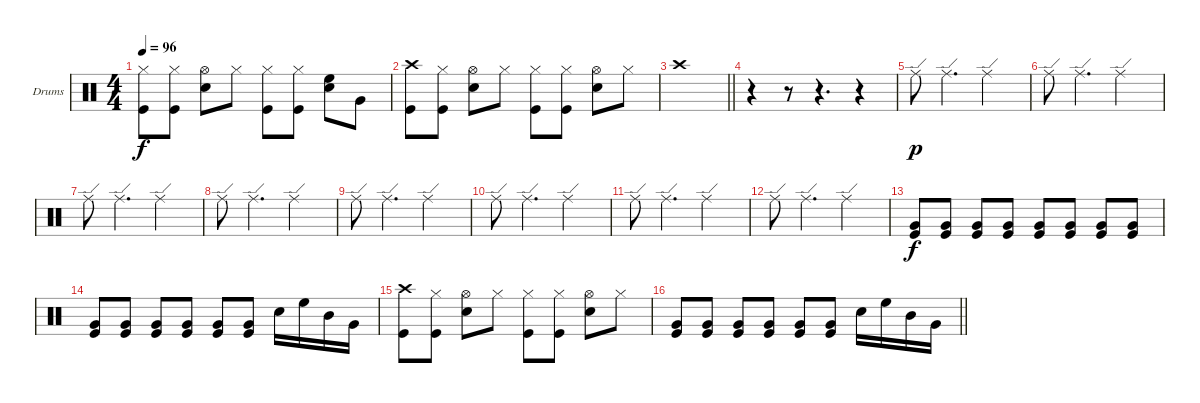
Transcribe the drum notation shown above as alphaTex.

\bracketExtendMode groupsimilarinstruments
\firstSystemTrackNameOrientation horizontal
\otherSystemsTrackNameOrientation horizontal
\track ("Drumkit" "Drums") {instrument percussion}
\staff {score}
\articulation defaults
\ts (4 4)
\tempo 96
\clef neutral
\ks c
("Hi-Hat (closed)" "Kick (hit)").8{dy f} ("Hi-Hat (closed)" "Kick (hit)").8 ("Hi-Hat (open)" "Snare (hit) 2").8 "Hi-Hat (closed)".8 ("Hi-Hat (closed)" "Kick (hit)").8 ("Hi-Hat (closed)" "Kick (hit)").8 ("Snare (hit) 2" "High Floor Tom (hit)").8 "Very Low Tom (hit)".8 |
("Crash high (hit)" "Kick (hit)").8 ("Hi-Hat (closed)" "Kick (hit)").8 ("Hi-Hat (open)" "Snare (hit) 2").8 "Hi-Hat (closed)".8 ("Hi-Hat (closed)" "Kick (hit)").8 ("Hi-Hat (closed)" "Kick (hit)").8 ("Hi-Hat (open)" "Snare (hit) 2").8 "Hi-Hat (closed)".8 |
\barLineRight lightlight "Crash high (hit)".1
|
r.4 r.8 r.4{d} r.4 |
"Ride (edge)".8{dy p} "Ride (edge)".4{d} "Ride (edge)".2 |
"Ride (edge)".8 "Ride (edge)".4{d} "Ride (edge)".2 |
"Ride (edge)".8 "Ride (edge)".4{d} "Ride (edge)".2 |
"Ride (edge)".8 "Ride (edge)".4{d} "Ride (edge)".2 |
"Ride (edge)".8 "Ride (edge)".4{d} "Ride (edge)".2 |
"Ride (edge)".8 "Ride (edge)".4{d} "Ride (edge)".2 |
"Ride (edge)".8 "Ride (edge)".4{d} "Ride (edge)".2 |
"Ride (edge)".8 "Ride (edge)".4{d} "Ride (edge)".2 |
("Kick (hit)" "Very Low Tom (hit)").8{dy f} ("Kick (hit)" "Very Low Tom (hit)").8 ("Kick (hit)" "Very Low Tom (hit)").8 ("Kick (hit)" "Very Low Tom (hit)").8 ("Kick (hit)" "Very Low Tom (hit)").8 ("Kick (hit)" "Very Low Tom (hit)").8 ("Kick (hit)" "Very Low Tom (hit)").8 ("Kick (hit)" "Very Low Tom (hit)").8 |
("Kick (hit)" "Very Low Tom (hit)").8 ("Kick (hit)" "Very Low Tom (hit)").8 ("Kick (hit)" "Very Low Tom (hit)").8 ("Kick (hit)" "Very Low Tom (hit)").8 ("Kick (hit)" "Very Low Tom (hit)").8 ("Kick (hit)" "Very Low Tom (hit)").8 "Snare (hit) 2".16 "High Floor Tom (hit)".16 "Mid Tom (hit)".16 "Very Low Tom (hit)".16 |
("Crash high (hit)" "Kick (hit)").8 ("Hi-Hat (closed)" "Kick (hit)").8 ("Hi-Hat (open)" "Snare (hit) 2").8 "Hi-Hat (closed)".8 ("Hi-Hat (closed)" "Kick (hit)").8 ("Hi-Hat (closed)" "Kick (hit)").8 ("Hi-Hat (open)" "Snare (hit) 2").8 "Hi-Hat (closed)".8 |
\barLineRight lightlight
("Kick (hit)" "Very Low Tom (hit)").8 ("Kick (hit)" "Very Low Tom (hit)").8 ("Kick (hit)" "Very Low Tom (hit)").8 ("Kick (hit)" "Very Low Tom (hit)").8 ("Kick (hit)" "Very Low Tom (hit)").8 ("Kick (hit)" "Very Low Tom (hit)").8 "Snare (hit) 2".16 "High Floor Tom (hit)".16 "Mid Tom (hit)".16 "Very Low Tom (hit)".16
